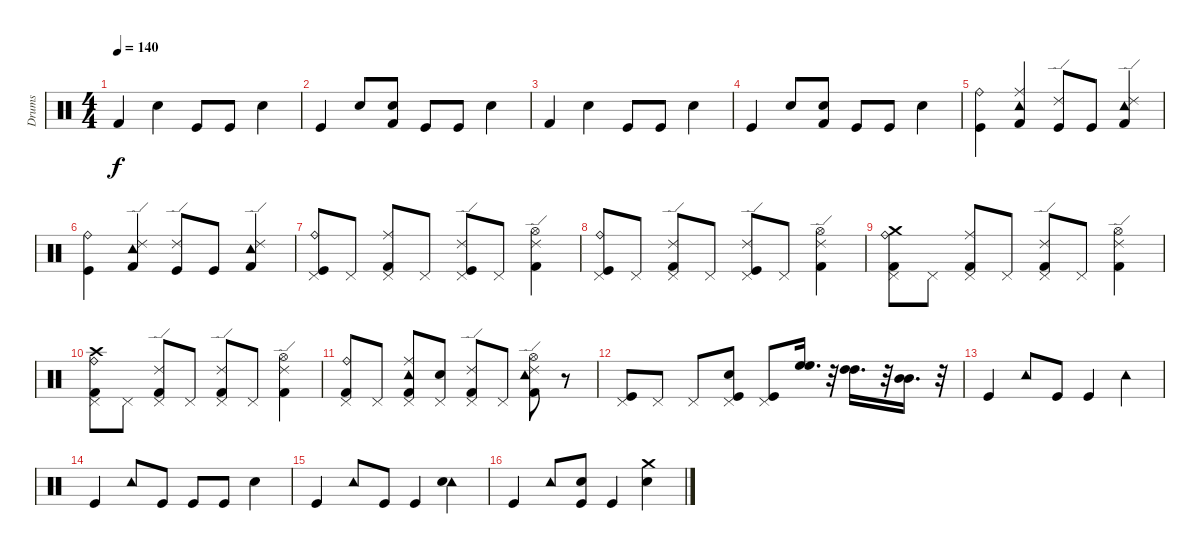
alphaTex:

\track ("Drums" "Drums") {instrument percussion}
\staff {score}
\articulation defaults
\ts (4 4)
\tempo 140
\clef neutral
\ks c "Kick (hit) 2".4{dy f} "Electric Snare (hit)".4 "Kick (hit)".8 "Kick (hit)".8 "Electric Snare (hit)".4
|
"Kick (hit)".4 "Electric Snare (hit)".8 ("Electric Snare (hit)" "Kick (hit) 2").8 "Kick (hit)".8 "Kick (hit)".8 "Electric Snare (hit)".4 |
"Kick (hit) 2".4 "Electric Snare (hit)".4 "Kick (hit)".8 "Kick (hit)".8 "Electric Snare (hit)".4 |
"Kick (hit)".4 "Electric Snare (hit)".8 ("Electric Snare (hit)" "Kick (hit) 2").8 "Kick (hit)".8 "Kick (hit)".8 "Electric Snare (hit)".4 |
("Ride (bell)" "Kick (hit)").4 ("Ride (middle)" "Tambourine (hit)" "Kick (hit) 2").4 ("Ride (edge) 2" "Kick (hit)").8 "Kick (hit)".8 ("Ride (edge) 2" "Tambourine (hit)" "Kick (hit) 2").4 |
("Ride (bell)" "Kick (hit)").4 ("Ride (edge) 2" "Tambourine (hit)" "Kick (hit) 2").4 ("Ride (edge) 2" "Kick (hit)").8 "Kick (hit)".8 ("Ride (edge) 2" "Tambourine (hit)" "Kick (hit) 2").4 |
("Ride (bell)" "Pedal Hi-Hat (hit)" "Kick (hit)").8 "Pedal Hi-Hat (hit)".8 ("Ride (middle)" "Pedal Hi-Hat (hit)" "Kick (hit) 2").8 "Pedal Hi-Hat (hit)".8 ("Ride (edge) 2" "Pedal Hi-Hat (hit)" "Kick (hit)").8 "Pedal Hi-Hat (hit)".8 ("Ride (edge) 2" "Hi-Hat (open)" "Kick (hit) 2").4 |
("Ride (bell)" "Pedal Hi-Hat (hit)" "Kick (hit)").8 "Pedal Hi-Hat (hit)".8 ("Ride (edge) 2" "Pedal Hi-Hat (hit)" "Kick (hit) 2").8 "Pedal Hi-Hat (hit)".8 ("Ride (edge) 2" "Pedal Hi-Hat (hit)" "Kick (hit)").8 "Pedal Hi-Hat (hit)".8 ("Ride (edge) 2" "Hi-Hat (open)" "Kick (hit) 2").4 |
("Crash medium (hit)" "Ride (bell)" "Pedal Hi-Hat (hit)" "Kick (hit) 2").8 "Pedal Hi-Hat (hit)".8 ("Ride (middle)" "Pedal Hi-Hat (hit)" "Kick (hit) 2").8 "Pedal Hi-Hat (hit)".8 ("Ride (edge) 2" "Pedal Hi-Hat (hit)" "Kick (hit) 2").8 "Pedal Hi-Hat (hit)".8 ("Ride (edge) 2" "Hi-Hat (open)" "Kick (hit) 2").4 |
("Crash high (hit)" "Ride (bell)" "Pedal Hi-Hat (hit)" "Kick (hit) 2").8 "Pedal Hi-Hat (hit)".8 ("Ride (edge) 2" "Pedal Hi-Hat (hit)" "Kick (hit) 2").8 "Pedal Hi-Hat (hit)".8 ("Ride (edge) 2" "Pedal Hi-Hat (hit)" "Kick (hit) 2").8 "Pedal Hi-Hat (hit)".8 ("Ride (edge) 2" "Hi-Hat (open)" "Kick (hit) 2").4 |
("Ride (bell)" "Pedal Hi-Hat (hit)" "Kick (hit) 2").8 "Pedal Hi-Hat (hit)".8 ("Ride (middle)" "Pedal Hi-Hat (hit)" "Tambourine (hit)" "Kick (hit) 2").8 ("Pedal Hi-Hat (hit)" "Electric Snare (hit)").8 ("Ride (edge) 2" "Pedal Hi-Hat (hit)" "Kick (hit) 2").8 "Pedal Hi-Hat (hit)".8 ("Ride (edge) 2" "Hi-Hat (open)" "Tambourine (hit)" "Kick (hit) 2").8 r.8 |
("Pedal Hi-Hat (hit)" "Kick (hit)").8 "Pedal Hi-Hat (hit)".8 "Pedal Hi-Hat (hit)".8 ("Pedal Hi-Hat (hit)" "Electric Snare (hit)" "Kick (hit)").8 ("Pedal Hi-Hat (hit)" "Kick (hit)").8 ("High Floor Tom (hit)" "High Floor Tom (hit)").16{d} r.32 ("High Tom (hit)" "High Tom (hit)").16{d} r.32 ("Mid Tom (hit)" "Mid Tom (hit)").16{d} r.32 |
"Kick (hit)".4 "Tambourine (hit)".8 "Kick (hit)".8 "Kick (hit)".4 "Tambourine (hit)".4 |
"Kick (hit)".4 "Tambourine (hit)".8 "Kick (hit)".8 "Kick (hit)".8 "Kick (hit)".8 "Electric Snare (hit)".4 |
"Kick (hit)".4 "Tambourine (hit)".8 "Kick (hit)".8 "Kick (hit)".4 ("Tambourine (hit)" "Electric Snare (hit)").4 |
"Kick (hit)".4 "Tambourine (hit)".8 ("Electric Snare (hit)" "Kick (hit)").8 "Kick (hit)".4 ("Crash medium (hit)" "Electric Snare (hit)").4
